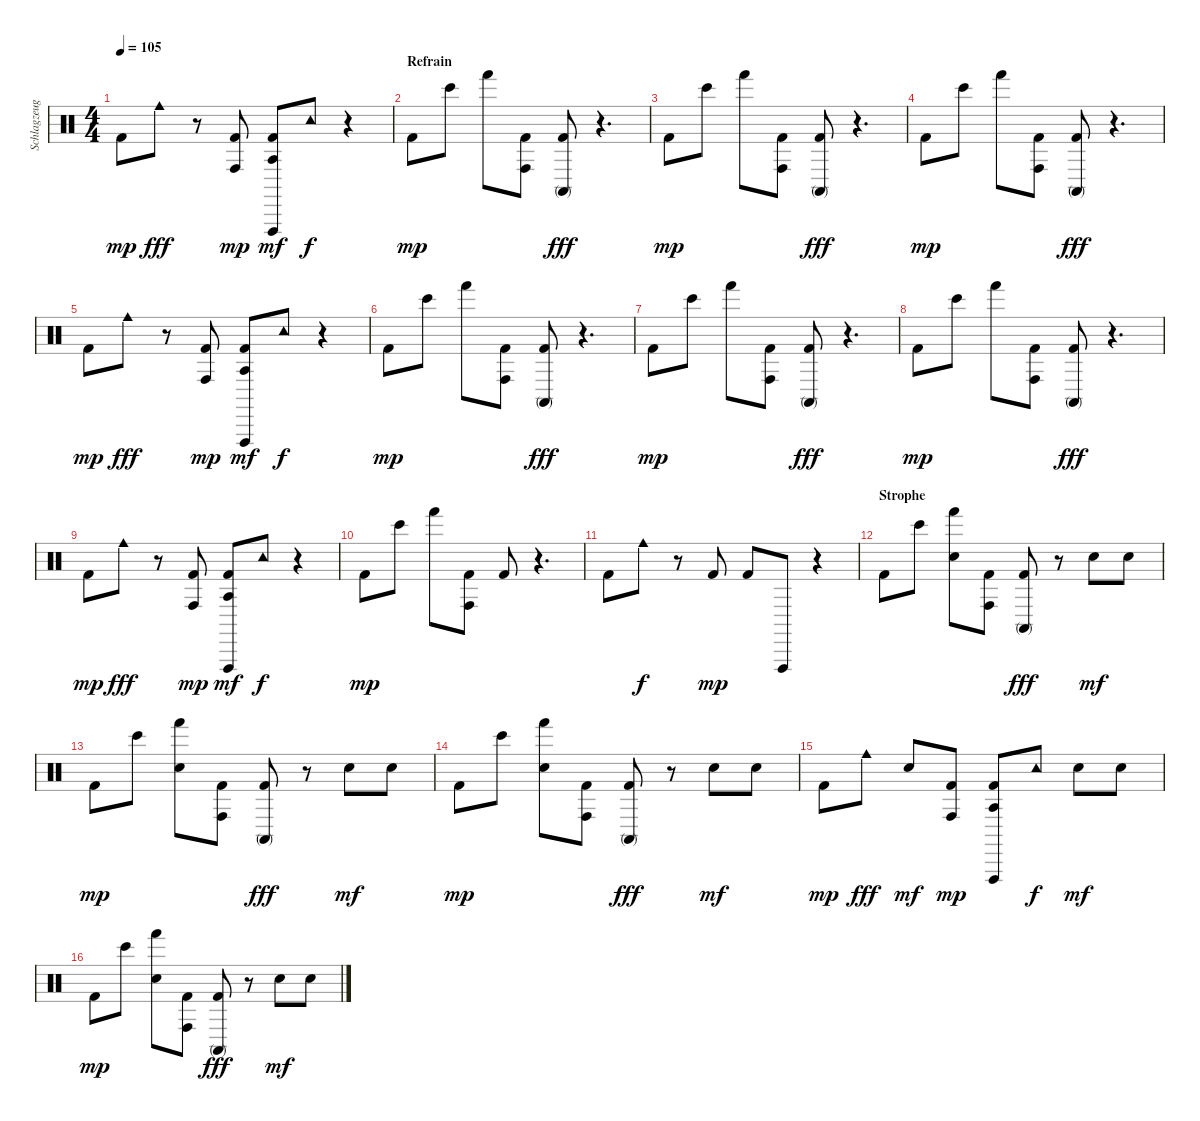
\track ("Schlagzeug" "Schlagzeug") {instrument percussion}
\staff {score}
\articulation defaults
\ts (4 4)
\tempo 105
\clef neutral
\ks c "Kick (hit) 2".8{dy mp} "Cowbell medium (hit)".8{dy fff}
r.8 ("Kick (hit) 2" "Conga high (hit)").8{dy mp} ("Kick (hit) 2" "Vibraslap (hit)" "Agogo tow (hit)").8{dy mf} "Tambourine (hit)".8{dy f} r.4 |
\section ("" "Refrain")
"Kick (hit) 2".8{dy mp} "Bongo High (hit)".8 "Hand (hit)".8 ("Kick (hit) 2" "Conga high (hit)").8 ("Kick (hit) 2" "Conga high (mute)").8{dy fff} r.4{d} |
"Kick (hit) 2".8{dy mp} "Bongo High (hit)".8 "Hand (hit)".8 ("Kick (hit) 2" "Conga high (hit)").8 ("Kick (hit) 2" "Conga high (mute)").8{dy fff} r.4{d} |
"Kick (hit) 2".8{dy mp} "Bongo High (hit)".8 "Hand (hit)".8 ("Kick (hit) 2" "Conga high (hit)").8 ("Kick (hit) 2" "Conga high (mute)").8{dy fff} r.4{d} |
"Kick (hit) 2".8{dy mp} "Cowbell medium (hit)".8{dy fff} r.8 ("Kick (hit) 2" "Conga high (hit)").8{dy mp} ("Kick (hit) 2" "Vibraslap (hit)" "Agogo tow (hit)").8{dy mf} "Tambourine (hit)".8{dy f} r.4 |
"Kick (hit) 2".8{dy mp} "Bongo High (hit)".8 "Hand (hit)".8 ("Kick (hit) 2" "Conga high (hit)").8 ("Kick (hit) 2" "Conga high (mute)").8{dy fff} r.4{d} |
"Kick (hit) 2".8{dy mp} "Bongo High (hit)".8 "Hand (hit)".8 ("Kick (hit) 2" "Conga high (hit)").8 ("Kick (hit) 2" "Conga high (mute)").8{dy fff} r.4{d} |
"Kick (hit) 2".8{dy mp} "Bongo High (hit)".8 "Hand (hit)".8 ("Kick (hit) 2" "Conga high (hit)").8 ("Kick (hit) 2" "Conga high (mute)").8{dy fff} r.4{d} |
"Kick (hit) 2".8{dy mp} "Cowbell medium (hit)".8{dy fff} r.8 ("Kick (hit) 2" "Conga high (hit)").8{dy mp} ("Kick (hit) 2" "Vibraslap (hit)" "Agogo tow (hit)").8{dy mf} "Tambourine (hit)".8{dy f} r.4 |
"Kick (hit) 2".8{dy mp} "Bongo High (hit)".8 "Hand (hit)".8 ("Kick (hit) 2" "Conga high (hit)").8 "Kick (hit) 2".8 r.4{d} |
"Kick (hit) 2".8 "Cowbell medium (hit)".8{dy f} r.8 "Kick (hit) 2".8{dy mp} "Kick (hit) 2".8 "Vibraslap (hit)".8 r.4 |
\section ("" "Strophe")
"Kick (hit) 2".8 "Bongo High (hit)".8 ("Hand Clap (hit)" "Hand (hit)").8 ("Kick (hit) 2" "Conga high (hit)").8 ("Kick (hit) 2" "Conga high (mute)").8{dy fff} r.8 "Hand Clap (hit)".8{dy mf} "Hand Clap (hit)".8 |
"Kick (hit) 2".8{dy mp} "Bongo High (hit)".8 ("Hand Clap (hit)" "Hand (hit)").8 ("Kick (hit) 2" "Conga high (hit)").8 ("Kick (hit) 2" "Conga high (mute)").8{dy fff} r.8 "Hand Clap (hit)".8{dy mf} "Hand Clap (hit)".8 |
"Kick (hit) 2".8{dy mp} "Bongo High (hit)".8 ("Hand Clap (hit)" "Hand (hit)").8 ("Kick (hit) 2" "Conga high (hit)").8 ("Kick (hit) 2" "Conga high (mute)").8{dy fff} r.8 "Hand Clap (hit)".8{dy mf} "Hand Clap (hit)".8 |
"Kick (hit) 2".8{dy mp} "Cowbell medium (hit)".8{dy fff} "Hand Clap (hit)".8{dy mf} ("Kick (hit) 2" "Conga high (hit)").8{dy mp} ("Vibraslap (hit)" "Agogo tow (hit)" "Kick (hit) 2").8 "Tambourine (hit)".8{dy f} "Hand Clap (hit)".8{dy mf} "Hand Clap (hit)".8 |
"Kick (hit) 2".8{dy mp} "Bongo High (hit)".8 ("Hand Clap (hit)" "Hand (hit)").8 ("Kick (hit) 2" "Conga high (hit)").8 ("Kick (hit) 2" "Conga high (mute)").8{dy fff} r.8 "Hand Clap (hit)".8{dy mf} "Hand Clap (hit)".8
